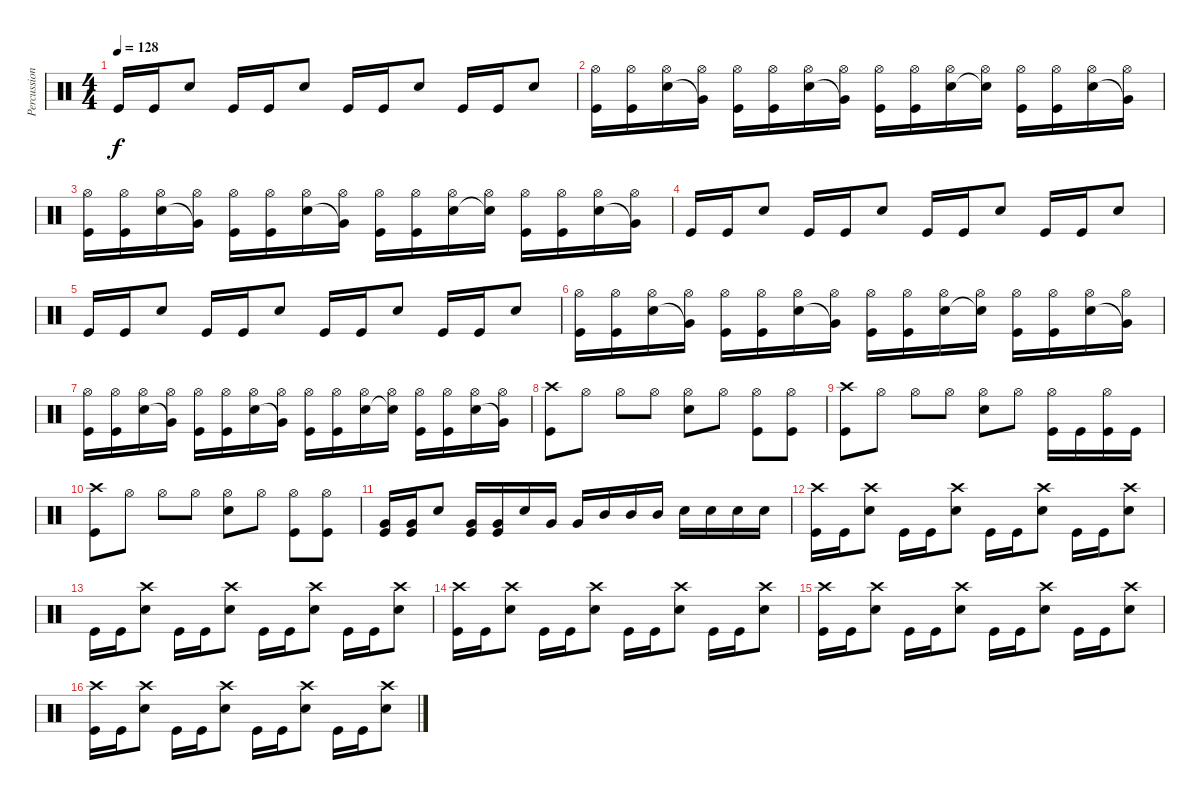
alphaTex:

\track ("Percussion" "Percussion") {instrument percussion}
\staff {score}
\articulation defaults
\ts (4 4)
\tempo 128
\clef neutral
\ks c "Kick (hit)".16{dy f} "Kick (hit)".16 "Electric Snare (hit)".8 "Kick (hit)".16 "Kick (hit)".16 "Electric Snare (hit)".8 "Kick (hit)".16 "Kick (hit)".16 "Electric Snare (hit)".8 "Kick (hit)".16 "Kick (hit)".16 "Electric Snare (hit)".8
|
("Hi-Hat (open)" "Kick (hit)").16 ("Hi-Hat (open)" "Kick (hit)").16 ("Hi-Hat (open)" "Electric Snare (hit)").16 ("Hi-Hat (open)" "Very Low Tom (hit)"{t}).16 ("Hi-Hat (open)" "Kick (hit)").16 ("Hi-Hat (open)" "Kick (hit)").16 ("Hi-Hat (open)" "Electric Snare (hit)").16 ("Hi-Hat (open)" "Very Low Tom (hit)"{t}).16 ("Hi-Hat (open)" "Kick (hit)").16 ("Hi-Hat (open)" "Kick (hit)").16 ("Hi-Hat (open)" "Electric Snare (hit)").16 ("Hi-Hat (open)" "Electric Snare (hit)"{t}).16 ("Hi-Hat (open)" "Kick (hit)").16 ("Hi-Hat (open)" "Kick (hit)").16 ("Hi-Hat (open)" "Electric Snare (hit)").16 ("Hi-Hat (open)" "Very Low Tom (hit)"{t}).16 |
("Hi-Hat (open)" "Kick (hit)").16 ("Hi-Hat (open)" "Kick (hit)").16 ("Hi-Hat (open)" "Electric Snare (hit)").16 ("Hi-Hat (open)" "Very Low Tom (hit)"{t}).16 ("Hi-Hat (open)" "Kick (hit)").16 ("Hi-Hat (open)" "Kick (hit)").16 ("Hi-Hat (open)" "Electric Snare (hit)").16 ("Hi-Hat (open)" "Very Low Tom (hit)"{t}).16 ("Hi-Hat (open)" "Kick (hit)").16 ("Hi-Hat (open)" "Kick (hit)").16 ("Hi-Hat (open)" "Electric Snare (hit)").16 ("Hi-Hat (open)" "Electric Snare (hit)"{t}).16 ("Hi-Hat (open)" "Kick (hit)").16 ("Hi-Hat (open)" "Kick (hit)").16 ("Hi-Hat (open)" "Electric Snare (hit)").16 ("Hi-Hat (open)" "Very Low Tom (hit)"{t}).16 |
"Kick (hit)".16 "Kick (hit)".16 "Electric Snare (hit)".8 "Kick (hit)".16 "Kick (hit)".16 "Electric Snare (hit)".8 "Kick (hit)".16 "Kick (hit)".16 "Electric Snare (hit)".8 "Kick (hit)".16 "Kick (hit)".16 "Electric Snare (hit)".8 |
"Kick (hit)".16 "Kick (hit)".16 "Electric Snare (hit)".8 "Kick (hit)".16 "Kick (hit)".16 "Electric Snare (hit)".8 "Kick (hit)".16 "Kick (hit)".16 "Electric Snare (hit)".8 "Kick (hit)".16 "Kick (hit)".16 "Electric Snare (hit)".8 |
("Hi-Hat (open)" "Kick (hit)").16 ("Hi-Hat (open)" "Kick (hit)").16 ("Hi-Hat (open)" "Electric Snare (hit)").16 ("Hi-Hat (open)" "Very Low Tom (hit)"{t}).16 ("Hi-Hat (open)" "Kick (hit)").16 ("Hi-Hat (open)" "Kick (hit)").16 ("Hi-Hat (open)" "Electric Snare (hit)").16 ("Hi-Hat (open)" "Very Low Tom (hit)"{t}).16 ("Hi-Hat (open)" "Kick (hit)").16 ("Hi-Hat (open)" "Kick (hit)").16 ("Hi-Hat (open)" "Electric Snare (hit)").16 ("Hi-Hat (open)" "Electric Snare (hit)"{t}).16 ("Hi-Hat (open)" "Kick (hit)").16 ("Hi-Hat (open)" "Kick (hit)").16 ("Hi-Hat (open)" "Electric Snare (hit)").16 ("Hi-Hat (open)" "Very Low Tom (hit)"{t}).16 |
("Hi-Hat (open)" "Kick (hit)").16 ("Hi-Hat (open)" "Kick (hit)").16 ("Hi-Hat (open)" "Electric Snare (hit)").16 ("Hi-Hat (open)" "Very Low Tom (hit)"{t}).16 ("Hi-Hat (open)" "Kick (hit)").16 ("Hi-Hat (open)" "Kick (hit)").16 ("Hi-Hat (open)" "Electric Snare (hit)").16 ("Hi-Hat (open)" "Very Low Tom (hit)"{t}).16 ("Hi-Hat (open)" "Kick (hit)").16 ("Hi-Hat (open)" "Kick (hit)").16 ("Hi-Hat (open)" "Electric Snare (hit)").16 ("Hi-Hat (open)" "Electric Snare (hit)"{t}).16 ("Hi-Hat (open)" "Kick (hit)").16 ("Hi-Hat (open)" "Kick (hit)").16 ("Hi-Hat (open)" "Electric Snare (hit)").16 ("Hi-Hat (open)" "Very Low Tom (hit)"{t}).16 |
("Crash high (hit)" "Kick (hit)").8 "Hi-Hat (open)".8 "Hi-Hat (open)".8 "Hi-Hat (open)".8 ("Hi-Hat (open)" "Electric Snare (hit)").8 "Hi-Hat (open)".8 ("Hi-Hat (open)" "Kick (hit)").8 ("Hi-Hat (open)" "Kick (hit)").8 |
("Crash high (hit)" "Kick (hit)").8 "Hi-Hat (open)".8 "Hi-Hat (open)".8 "Hi-Hat (open)".8 ("Hi-Hat (open)" "Electric Snare (hit)").8 "Hi-Hat (open)".8 ("Hi-Hat (open)" "Kick (hit)").16 "Kick (hit)".16 ("Hi-Hat (open)" "Kick (hit)").16 "Kick (hit)".16 |
("Crash high (hit)" "Kick (hit)").8 "Hi-Hat (open)".8 "Hi-Hat (open)".8 "Hi-Hat (open)".8 ("Hi-Hat (open)" "Electric Snare (hit)").8 "Hi-Hat (open)".8 ("Hi-Hat (open)" "Kick (hit)").8 ("Hi-Hat (open)" "Kick (hit)").8 |
("Very Low Tom (hit)" "Kick (hit)").16 ("Very Low Tom (hit)" "Kick (hit)").16 "Electric Snare (hit)".8 ("Very Low Tom (hit)" "Kick (hit)").16 ("Very Low Tom (hit)" "Kick (hit)").16 "Electric Snare (hit)".16 "Very Low Tom (hit)".16 "Very Low Tom (hit)".16 "Mid Tom (hit)".16 "Mid Tom (hit)".16 "Mid Tom (hit)".16 "Electric Snare (hit)".16 "Electric Snare (hit)".16 "Electric Snare (hit)".16 "Electric Snare (hit)".16 |
("Crash high (hit)" "Kick (hit)").16 "Kick (hit)".16 ("Crash high (hit)" "Electric Snare (hit)").8 "Kick (hit)".16 "Kick (hit)".16 ("Crash high (hit)" "Electric Snare (hit)").8 "Kick (hit)".16 "Kick (hit)".16 ("Crash high (hit)" "Electric Snare (hit)").8 "Kick (hit)".16 "Kick (hit)".16 ("Crash high (hit)" "Electric Snare (hit)").8 |
"Kick (hit)".16 "Kick (hit)".16 ("Crash high (hit)" "Electric Snare (hit)").8 "Kick (hit)".16 "Kick (hit)".16 ("Crash high (hit)" "Electric Snare (hit)").8 "Kick (hit)".16 "Kick (hit)".16 ("Crash high (hit)" "Electric Snare (hit)").8 "Kick (hit)".16 "Kick (hit)".16 ("Crash high (hit)" "Electric Snare (hit)").8 |
("Crash high (hit)" "Kick (hit)").16 "Kick (hit)".16 ("Crash high (hit)" "Electric Snare (hit)").8 "Kick (hit)".16 "Kick (hit)".16 ("Crash high (hit)" "Electric Snare (hit)").8 "Kick (hit)".16 "Kick (hit)".16 ("Crash high (hit)" "Electric Snare (hit)").8 "Kick (hit)".16 "Kick (hit)".16 ("Crash high (hit)" "Electric Snare (hit)").8 |
("Crash high (hit)" "Kick (hit)").16 "Kick (hit)".16 ("Crash high (hit)" "Electric Snare (hit)").8 "Kick (hit)".16 "Kick (hit)".16 ("Crash high (hit)" "Electric Snare (hit)").8 "Kick (hit)".16 "Kick (hit)".16 ("Crash high (hit)" "Electric Snare (hit)").8 "Kick (hit)".16 "Kick (hit)".16 ("Crash high (hit)" "Electric Snare (hit)").8 |
("Crash high (hit)" "Kick (hit)").16 "Kick (hit)".16 ("Crash high (hit)" "Electric Snare (hit)").8 "Kick (hit)".16 "Kick (hit)".16 ("Crash high (hit)" "Electric Snare (hit)").8 "Kick (hit)".16 "Kick (hit)".16 ("Crash high (hit)" "Electric Snare (hit)").8 "Kick (hit)".16 "Kick (hit)".16 ("Crash high (hit)" "Electric Snare (hit)").8
